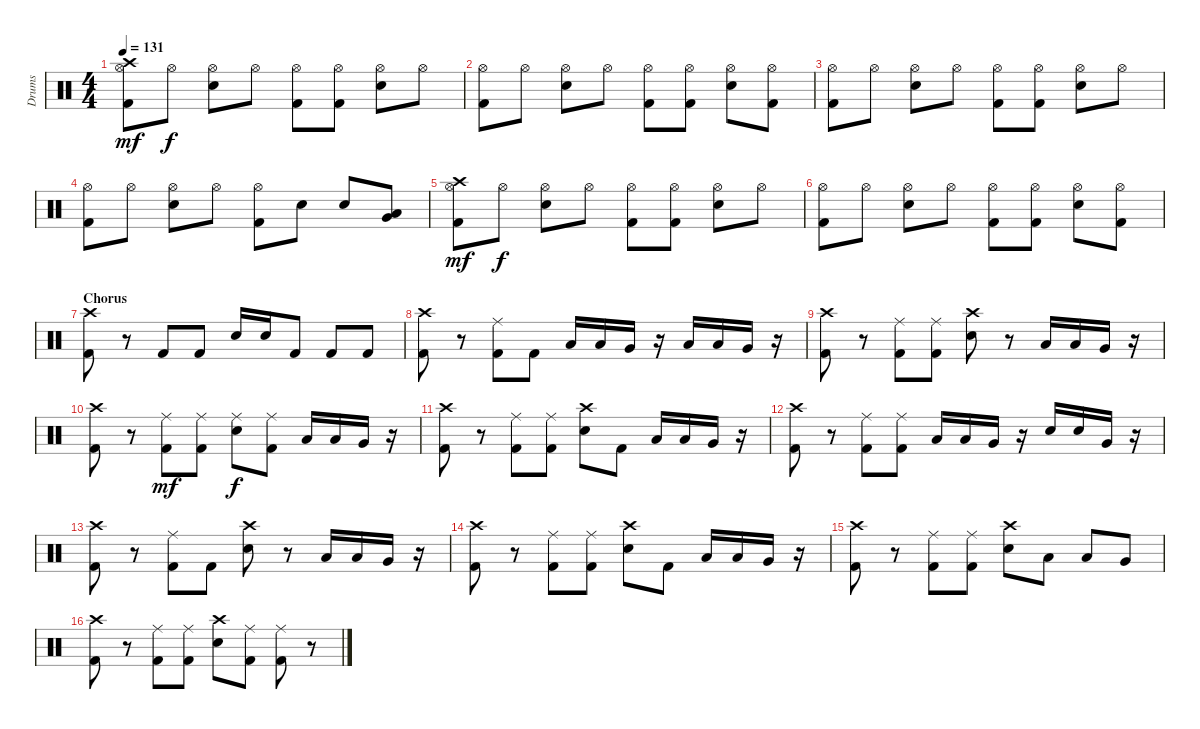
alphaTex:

\track ("Drums" "Drums") {instrument percussion}
\staff {score}
\articulation defaults
\ts (4 4)
\tempo 131
\clef neutral
\ks c
("Kick (hit) 2" "Crash high (hit)" "Hi-Hat (open)").8{dy mf} "Hi-Hat (open)".8{dy f} ("Electric Snare (hit)" "Hi-Hat (open)").8 "Hi-Hat (open)".8 ("Kick (hit) 2" "Hi-Hat (open)").8 ("Kick (hit) 2" "Hi-Hat (open)").8 ("Electric Snare (hit)" "Hi-Hat (open)").8 "Hi-Hat (open)".8 |
("Kick (hit) 2" "Hi-Hat (open)").8 "Hi-Hat (open)".8 ("Electric Snare (hit)" "Hi-Hat (open)").8 "Hi-Hat (open)".8 ("Kick (hit) 2" "Hi-Hat (open)").8 ("Kick (hit) 2" "Hi-Hat (open)").8 ("Electric Snare (hit)" "Hi-Hat (open)").8 ("Kick (hit) 2" "Hi-Hat (open)").8 |
("Kick (hit) 2" "Hi-Hat (open)").8 "Hi-Hat (open)".8 ("Electric Snare (hit)" "Hi-Hat (open)").8 "Hi-Hat (open)".8 ("Kick (hit) 2" "Hi-Hat (open)").8 ("Kick (hit) 2" "Hi-Hat (open)").8 ("Electric Snare (hit)" "Hi-Hat (open)").8 "Hi-Hat (open)".8 |
("Kick (hit) 2" "Hi-Hat (open)").8 "Hi-Hat (open)".8 ("Electric Snare (hit)" "Hi-Hat (open)").8 "Hi-Hat (open)".8 ("Kick (hit) 2" "Hi-Hat (open)").8 "Electric Snare (hit)".8 "Electric Snare (hit)".8 ("Low Tom (hit)" "Very Low Tom (hit)").8 |
("Kick (hit) 2" "Crash high (hit)" "Hi-Hat (open)").8{dy mf} "Hi-Hat (open)".8{dy f} ("Electric Snare (hit)" "Hi-Hat (open)").8 "Hi-Hat (open)".8 ("Kick (hit) 2" "Hi-Hat (open)").8 ("Kick (hit) 2" "Hi-Hat (open)").8 ("Electric Snare (hit)" "Hi-Hat (open)").8 "Hi-Hat (open)".8 |
("Kick (hit) 2" "Hi-Hat (open)").8 "Hi-Hat (open)".8 ("Electric Snare (hit)" "Hi-Hat (open)").8 "Hi-Hat (open)".8 ("Kick (hit) 2" "Hi-Hat (open)").8 ("Kick (hit) 2" "Hi-Hat (open)").8 ("Electric Snare (hit)" "Hi-Hat (open)").8 ("Kick (hit) 2" "Hi-Hat (open)").8 |
\section ("" "Chorus")
("Kick (hit) 2" "Crash high (hit)").8 r.8 "Kick (hit) 2".8 "Kick (hit) 2".8 "Electric Snare (hit)".16 "Electric Snare (hit)".16 "Kick (hit) 2".8 "Kick (hit) 2".8 "Kick (hit) 2".8 |
("Kick (hit) 2" "Crash high (hit)").8 r.8 ("Kick (hit) 2" "Ride (middle)").8 "Kick (hit) 2".8 "Low Tom (hit)".16 "Low Tom (hit)".16 "Very Low Tom (hit)".16 r.16 "Low Tom (hit)".16 "Low Tom (hit)".16 "Very Low Tom (hit)".16 r.16 |
("Kick (hit) 2" "Crash high (hit)").8 r.8 ("Kick (hit) 2" "Ride (middle)").8 ("Kick (hit) 2" "Ride (middle)").8 ("Electric Snare (hit)" "Crash high (hit)").8 r.8 "Low Tom (hit)".16 "Low Tom (hit)".16 "Very Low Tom (hit)".16 r.16 |
("Kick (hit) 2" "Crash high (hit)").8 r.8 ("Kick (hit) 2" "Ride (middle)").8{dy mf} ("Kick (hit) 2" "Ride (middle)").8 ("Electric Snare (hit)" "Ride (middle)").8{dy f} ("Kick (hit) 2" "Ride (middle)").8 "Low Tom (hit)".16 "Low Tom (hit)".16 "Very Low Tom (hit)".16 r.16 |
("Kick (hit) 2" "Crash high (hit)").8 r.8 ("Kick (hit) 2" "Ride (middle)").8 ("Kick (hit) 2" "Ride (middle)").8 ("Electric Snare (hit)" "Crash high (hit)").8 "Kick (hit) 2".8 "Low Tom (hit)".16 "Low Tom (hit)".16 "Very Low Tom (hit)".16 r.16 |
("Kick (hit) 2" "Crash high (hit)").8 r.8 ("Kick (hit) 2" "Ride (middle)").8 ("Kick (hit) 2" "Ride (middle)").8 "Low Tom (hit)".16 "Low Tom (hit)".16 "Very Low Tom (hit)".16 r.16 "Electric Snare (hit)".16 "Electric Snare (hit)".16 "Very Low Tom (hit)".16 r.16 |
("Kick (hit) 2" "Crash high (hit)").8 r.8 ("Kick (hit) 2" "Ride (middle)").8 "Kick (hit) 2".8 ("Electric Snare (hit)" "Crash high (hit)").8 r.8 "Low Tom (hit)".16 "Low Tom (hit)".16 "Very Low Tom (hit)".16 r.16 |
("Kick (hit) 2" "Crash high (hit)").8 r.8 ("Kick (hit) 2" "Ride (middle)").8 ("Kick (hit) 2" "Ride (middle)").8 ("Electric Snare (hit)" "Crash high (hit)").8 "Kick (hit) 2".8 "Low Tom (hit)".16 "Low Tom (hit)".16 "Very Low Tom (hit)".16 r.16 |
("Kick (hit) 2" "Crash high (hit)").8 r.8 ("Kick (hit) 2" "Ride (middle)").8 ("Kick (hit) 2" "Ride (middle)").8 ("Electric Snare (hit)" "Crash high (hit)").8 "Low Tom (hit)".8 "Low Tom (hit)".8 "Very Low Tom (hit)".8 |
("Kick (hit) 2" "Crash high (hit)").8 r.8 ("Kick (hit) 2" "Ride (middle)").8 ("Kick (hit) 2" "Ride (middle)").8 ("Electric Snare (hit)" "Crash high (hit)").8 ("Kick (hit) 2" "Ride (middle)").8 ("Kick (hit) 2" "Ride (middle)").8 r.8
